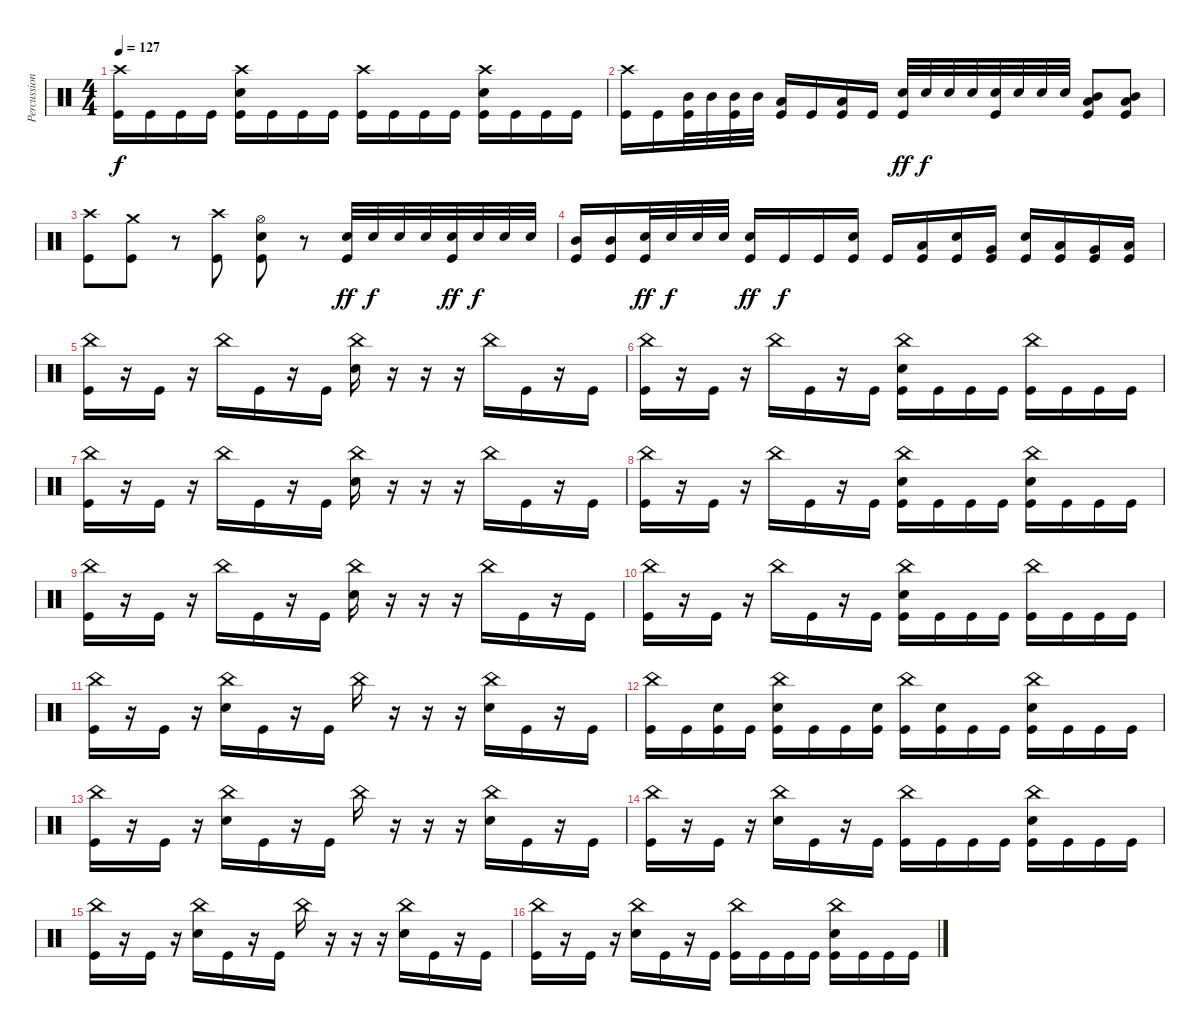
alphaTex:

\track ("Percussion" "Percussion") {instrument percussion}
\staff {score}
\articulation defaults
\ts (4 4)
\tempo 127
\clef neutral
\ks c
("Crash high (hit)" "Kick (hit)").16{dy f} "Kick (hit)".16 "Kick (hit)".16 "Kick (hit)".16 ("Crash high (hit)" "Snare (hit) 2" "Kick (hit)").16 "Kick (hit)".16 "Kick (hit)".16 "Kick (hit)".16 ("Crash high (hit)" "Kick (hit)").16 "Kick (hit)".16 "Kick (hit)".16 "Kick (hit)".16 ("Crash high (hit)" "Snare (hit) 2" "Kick (hit)").16 "Kick (hit)".16 "Kick (hit)".16 "Kick (hit)".16 |
("Crash high (hit)" "Kick (hit)").16 "Kick (hit)".16 ("Mid Tom (hit)" "Kick (hit)").32 "Mid Tom (hit)".32 ("Mid Tom (hit)" "Kick (hit)").32 "Mid Tom (hit)".32 ("Low Tom (hit)" "Kick (hit)").16 "Kick (hit)".16 ("Low Tom (hit)" "Kick (hit)").16 "Kick (hit)".16 ("Snare (hit) 2" "Kick (hit)").32{dy ff} "Snare (hit) 2".32{dy f} "Snare (hit) 2".32 "Snare (hit) 2".32 ("Snare (hit) 2" "Kick (hit)").32 "Snare (hit) 2".32 "Snare (hit) 2".32 "Snare (hit) 2".32 ("Mid Tom (hit)" "Low Tom (hit)" "Kick (hit)").8 ("Mid Tom (hit)" "Low Tom (hit)" "Kick (hit)").8 |
("Crash high (hit)" "Kick (hit)").8 ("Crash medium (hit)" "Kick (hit)").8 r.8 ("Crash high (hit)" "Kick (hit)").8 ("Hi-Hat (open)" "Snare (hit) 2" "Kick (hit)").8 r.8 ("Snare (hit) 2" "Kick (hit)").32{dy ff} "Snare (hit) 2".32{dy f} "Snare (hit) 2".32 "Snare (hit) 2".32 ("Snare (hit) 2" "Kick (hit)").32{dy ff} "Snare (hit) 2".32{dy f} "Snare (hit) 2".32 "Snare (hit) 2".32 |
("Mid Tom (hit)" "Kick (hit)").16 ("Mid Tom (hit)" "Kick (hit)").16 ("Snare (hit) 2" "Kick (hit)").32{dy ff} "Snare (hit) 2".32{dy f} "Snare (hit) 2".32 "Snare (hit) 2".32 ("Snare (hit) 2" "Kick (hit)").16{dy ff} "Kick (hit)".16{dy f} "Kick (hit)".16 ("Snare (hit) 2" "Kick (hit)").16 "Kick (hit)".16 ("Low Tom (hit)" "Kick (hit)").16 ("Snare (hit) 2" "Kick (hit)").16 ("Very Low Tom (hit)" "Kick (hit)").16 ("Snare (hit) 2" "Kick (hit)").16 ("Low Tom (hit)" "Kick (hit)").16 ("Very Low Tom (hit)" "Kick (hit)").16 ("Low Floor Tom (hit)" "Kick (hit)").16 |
("China (hit)" "Kick (hit)").16 r.16 "Kick (hit)".16 r.16 "China (hit)".16 "Kick (hit)".16 r.16 "Kick (hit)".16 ("China (hit)" "Snare (hit) 2").16 r.16 r.16 r.16 "China (hit)".16 "Kick (hit)".16 r.16 "Kick (hit)".16 |
("China (hit)" "Kick (hit)").16 r.16 "Kick (hit)".16 r.16 "China (hit)".16 "Kick (hit)".16 r.16 "Kick (hit)".16 ("China (hit)" "Snare (hit) 2" "Kick (hit)").16 "Kick (hit)".16 "Kick (hit)".16 "Kick (hit)".16 ("China (hit)" "Kick (hit)").16 "Kick (hit)".16 "Kick (hit)".16 "Kick (hit)".16 |
("China (hit)" "Kick (hit)").16 r.16 "Kick (hit)".16 r.16 "China (hit)".16 "Kick (hit)".16 r.16 "Kick (hit)".16 ("China (hit)" "Snare (hit) 2").16 r.16 r.16 r.16 "China (hit)".16 "Kick (hit)".16 r.16 "Kick (hit)".16 |
("China (hit)" "Kick (hit)").16 r.16 "Kick (hit)".16 r.16 "China (hit)".16 "Kick (hit)".16 r.16 "Kick (hit)".16 ("China (hit)" "Snare (hit) 2" "Kick (hit)").16 "Kick (hit)".16 "Kick (hit)".16 "Kick (hit)".16 ("China (hit)" "Snare (hit) 2" "Kick (hit)").16 "Kick (hit)".16 "Kick (hit)".16 "Kick (hit)".16 |
("China (hit)" "Kick (hit)").16 r.16 "Kick (hit)".16 r.16 "China (hit)".16 "Kick (hit)".16 r.16 "Kick (hit)".16 ("China (hit)" "Snare (hit) 2").16 r.16 r.16 r.16 "China (hit)".16 "Kick (hit)".16 r.16 "Kick (hit)".16 |
("China (hit)" "Kick (hit)").16 r.16 "Kick (hit)".16 r.16 "China (hit)".16 "Kick (hit)".16 r.16 "Kick (hit)".16 ("China (hit)" "Snare (hit) 2" "Kick (hit)").16 "Kick (hit)".16 "Kick (hit)".16 "Kick (hit)".16 ("China (hit)" "Kick (hit)").16 "Kick (hit)".16 "Kick (hit)".16 "Kick (hit)".16 |
("China (hit)" "Kick (hit)").16 r.16 "Kick (hit)".16 r.16 ("China (hit)" "Snare (hit) 2").16 "Kick (hit)".16 r.16 "Kick (hit)".16 "China (hit)".16 r.16 r.16 r.16 ("China (hit)" "Snare (hit) 2").16 "Kick (hit)".16 r.16 "Kick (hit)".16 |
("China (hit)" "Kick (hit)").16 "Kick (hit)".16 ("Snare (hit) 2" "Kick (hit)").16 "Kick (hit)".16 ("China (hit)" "Snare (hit) 2" "Kick (hit)").16 "Kick (hit)".16 "Kick (hit)".16 ("Snare (hit) 2" "Kick (hit)").16 ("China (hit)" "Kick (hit)").16 ("Snare (hit) 2" "Kick (hit)").16 "Kick (hit)".16 "Kick (hit)".16 ("China (hit)" "Snare (hit) 2" "Kick (hit)").16 "Kick (hit)".16 "Kick (hit)".16 "Kick (hit)".16 |
("China (hit)" "Kick (hit)").16 r.16 "Kick (hit)".16 r.16 ("China (hit)" "Snare (hit) 2").16 "Kick (hit)".16 r.16 "Kick (hit)".16 "China (hit)".16 r.16 r.16 r.16 ("China (hit)" "Snare (hit) 2").16 "Kick (hit)".16 r.16 "Kick (hit)".16 |
("China (hit)" "Kick (hit)").16 r.16 "Kick (hit)".16 r.16 ("China (hit)" "Snare (hit) 2").16 "Kick (hit)".16 r.16 "Kick (hit)".16 ("China (hit)" "Kick (hit)").16 "Kick (hit)".16 "Kick (hit)".16 "Kick (hit)".16 ("China (hit)" "Snare (hit) 2" "Kick (hit)").16 "Kick (hit)".16 "Kick (hit)".16 "Kick (hit)".16 |
("China (hit)" "Kick (hit)").16 r.16 "Kick (hit)".16 r.16 ("China (hit)" "Snare (hit) 2").16 "Kick (hit)".16 r.16 "Kick (hit)".16 "China (hit)".16 r.16 r.16 r.16 ("China (hit)" "Snare (hit) 2").16 "Kick (hit)".16 r.16 "Kick (hit)".16 |
("China (hit)" "Kick (hit)").16 r.16 "Kick (hit)".16 r.16 ("China (hit)" "Snare (hit) 2").16 "Kick (hit)".16 r.16 "Kick (hit)".16 ("China (hit)" "Kick (hit)").16 "Kick (hit)".16 "Kick (hit)".16 "Kick (hit)".16 ("China (hit)" "Snare (hit) 2" "Kick (hit)").16 "Kick (hit)".16 "Kick (hit)".16 "Kick (hit)".16
